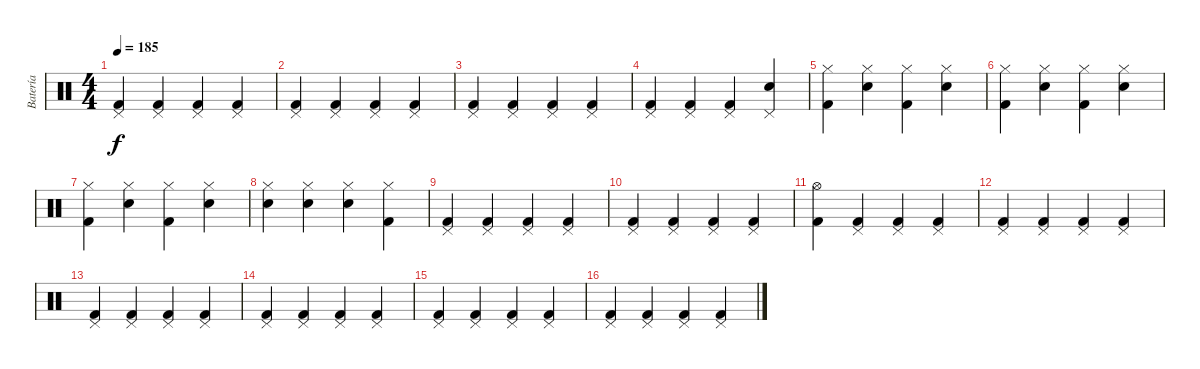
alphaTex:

\track ("Batería" "Batería") {instrument percussion}
\staff {score}
\articulation defaults
\ts (4 4)
\tempo 185
\clef neutral
\ks c
("Pedal Hi-Hat (hit)" "Kick (hit) 2").4{dy f} ("Pedal Hi-Hat (hit)" "Kick (hit) 2").4 ("Pedal Hi-Hat (hit)" "Kick (hit) 2").4 ("Pedal Hi-Hat (hit)" "Kick (hit) 2").4 |
("Pedal Hi-Hat (hit)" "Kick (hit) 2").4 ("Pedal Hi-Hat (hit)" "Kick (hit) 2").4 ("Pedal Hi-Hat (hit)" "Kick (hit) 2").4 ("Pedal Hi-Hat (hit)" "Kick (hit) 2").4 |
("Pedal Hi-Hat (hit)" "Kick (hit) 2").4 ("Pedal Hi-Hat (hit)" "Kick (hit) 2").4 ("Pedal Hi-Hat (hit)" "Kick (hit) 2").4 ("Pedal Hi-Hat (hit)" "Kick (hit) 2").4 |
("Pedal Hi-Hat (hit)" "Kick (hit) 2").4 ("Pedal Hi-Hat (hit)" "Kick (hit) 2").4 ("Pedal Hi-Hat (hit)" "Kick (hit) 2").4 ("Pedal Hi-Hat (hit)" "Snare (hit) 2").4 |
("Hi-Hat (closed)" "Kick (hit) 2").4 ("Hi-Hat (closed)" "Snare (hit) 2").4 ("Hi-Hat (closed)" "Kick (hit) 2").4 ("Hi-Hat (closed)" "Snare (hit) 2").4 |
("Hi-Hat (closed)" "Kick (hit) 2").4 ("Hi-Hat (closed)" "Snare (hit) 2").4 ("Hi-Hat (closed)" "Kick (hit) 2").4 ("Hi-Hat (closed)" "Snare (hit) 2").4 |
("Hi-Hat (closed)" "Kick (hit) 2").4 ("Hi-Hat (closed)" "Snare (hit) 2").4 ("Hi-Hat (closed)" "Kick (hit) 2").4 ("Hi-Hat (closed)" "Snare (hit) 2").4 |
("Hi-Hat (closed)" "Snare (hit) 2").4 ("Hi-Hat (closed)" "Snare (hit) 2").4 ("Hi-Hat (closed)" "Snare (hit) 2").4 ("Hi-Hat (closed)" "Kick (hit) 2").4 |
("Pedal Hi-Hat (hit)" "Kick (hit) 2").4 ("Pedal Hi-Hat (hit)" "Kick (hit) 2").4 ("Pedal Hi-Hat (hit)" "Kick (hit) 2").4 ("Pedal Hi-Hat (hit)" "Kick (hit) 2").4 |
("Pedal Hi-Hat (hit)" "Kick (hit) 2").4 ("Pedal Hi-Hat (hit)" "Kick (hit) 2").4 ("Pedal Hi-Hat (hit)" "Kick (hit) 2").4 ("Pedal Hi-Hat (hit)" "Kick (hit) 2").4 |
("Hi-Hat (open)" "Kick (hit) 2").4 ("Pedal Hi-Hat (hit)" "Kick (hit) 2").4 ("Pedal Hi-Hat (hit)" "Kick (hit) 2").4 ("Pedal Hi-Hat (hit)" "Kick (hit) 2").4 |
("Pedal Hi-Hat (hit)" "Kick (hit) 2").4 ("Pedal Hi-Hat (hit)" "Kick (hit) 2").4 ("Pedal Hi-Hat (hit)" "Kick (hit) 2").4 ("Pedal Hi-Hat (hit)" "Kick (hit) 2").4 |
("Pedal Hi-Hat (hit)" "Kick (hit) 2").4 ("Pedal Hi-Hat (hit)" "Kick (hit) 2").4 ("Pedal Hi-Hat (hit)" "Kick (hit) 2").4 ("Pedal Hi-Hat (hit)" "Kick (hit) 2").4 |
("Pedal Hi-Hat (hit)" "Kick (hit) 2").4 ("Pedal Hi-Hat (hit)" "Kick (hit) 2").4 ("Pedal Hi-Hat (hit)" "Kick (hit) 2").4 ("Pedal Hi-Hat (hit)" "Kick (hit) 2").4 |
("Pedal Hi-Hat (hit)" "Kick (hit) 2").4 ("Pedal Hi-Hat (hit)" "Kick (hit) 2").4 ("Pedal Hi-Hat (hit)" "Kick (hit) 2").4 ("Pedal Hi-Hat (hit)" "Kick (hit) 2").4 |
("Pedal Hi-Hat (hit)" "Kick (hit) 2").4 ("Pedal Hi-Hat (hit)" "Kick (hit) 2").4 ("Pedal Hi-Hat (hit)" "Kick (hit) 2").4 ("Pedal Hi-Hat (hit)" "Kick (hit) 2").4
